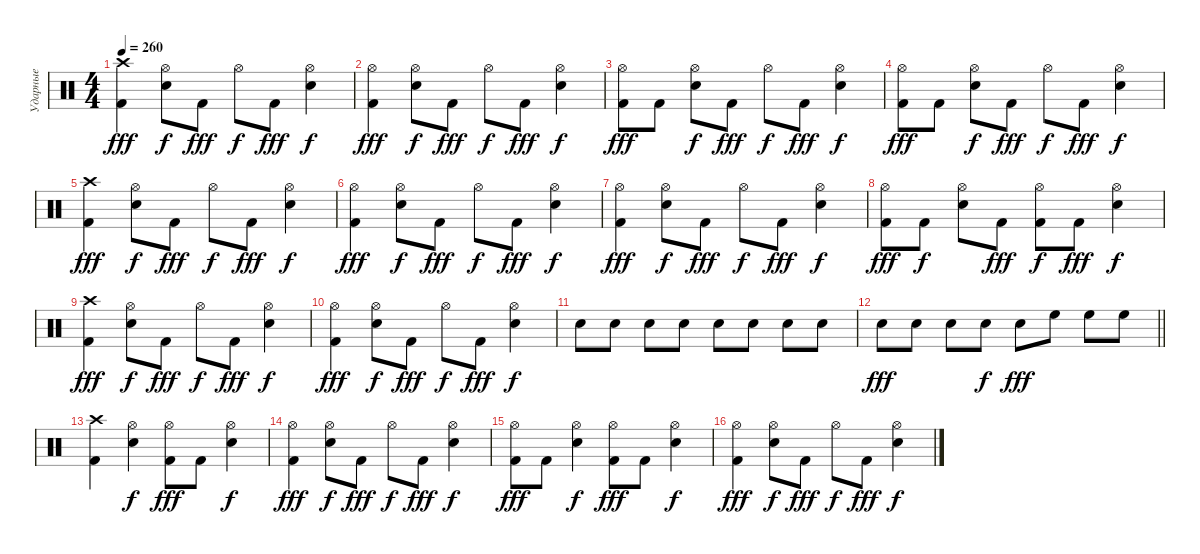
\track ("Ударные" "Ударные") {instrument percussion}
\staff {score}
\articulation defaults
\ts (4 4)
\tempo 260
\clef neutral
\ks c
("Kick (hit) 2" "Crash high (hit)").4{dy fff} ("Snare (hit) 2" "Hi-Hat (open)").8{dy f} "Kick (hit) 2".8{dy fff} "Hi-Hat (open)".8{dy f} "Kick (hit) 2".8{dy fff} ("Snare (hit) 2" "Hi-Hat (open)").4{dy f} |
("Kick (hit) 2" "Hi-Hat (open)").4{dy fff} ("Snare (hit) 2" "Hi-Hat (open)").8{dy f} "Kick (hit) 2".8{dy fff} "Hi-Hat (open)".8{dy f} "Kick (hit) 2".8{dy fff} ("Snare (hit) 2" "Hi-Hat (open)").4{dy f} |
("Kick (hit) 2" "Hi-Hat (open)").8{dy fff} "Kick (hit) 2".8 ("Snare (hit) 2" "Hi-Hat (open)").8{dy f} "Kick (hit) 2".8{dy fff} "Hi-Hat (open)".8{dy f} "Kick (hit) 2".8{dy fff} ("Snare (hit) 2" "Hi-Hat (open)").4{dy f} |
("Kick (hit) 2" "Hi-Hat (open)").8{dy fff} "Kick (hit) 2".8 ("Snare (hit) 2" "Hi-Hat (open)").8{dy f} "Kick (hit) 2".8{dy fff} "Hi-Hat (open)".8{dy f} "Kick (hit) 2".8{dy fff} ("Snare (hit) 2" "Hi-Hat (open)").4{dy f} |
("Kick (hit) 2" "Crash high (hit)").4{dy fff} ("Snare (hit) 2" "Hi-Hat (open)").8{dy f} "Kick (hit) 2".8{dy fff} "Hi-Hat (open)".8{dy f} "Kick (hit) 2".8{dy fff} ("Snare (hit) 2" "Hi-Hat (open)").4{dy f} |
("Kick (hit) 2" "Hi-Hat (open)").4{dy fff} ("Snare (hit) 2" "Hi-Hat (open)").8{dy f} "Kick (hit) 2".8{dy fff} "Hi-Hat (open)".8{dy f} "Kick (hit) 2".8{dy fff} ("Snare (hit) 2" "Hi-Hat (open)").4{dy f} |
("Kick (hit) 2" "Hi-Hat (open)").4{dy fff} ("Snare (hit) 2" "Hi-Hat (open)").8{dy f} "Kick (hit) 2".8{dy fff} "Hi-Hat (open)".8{dy f} "Kick (hit) 2".8{dy fff} ("Snare (hit) 2" "Hi-Hat (open)").4{dy f} |
("Kick (hit) 2" "Hi-Hat (open)").8{dy fff} "Kick (hit) 2".8{dy f} ("Snare (hit) 2" "Hi-Hat (open)").8 "Kick (hit) 2".8{dy fff} ("Kick (hit) 2" "Hi-Hat (open)").8{dy f} "Kick (hit) 2".8{dy fff} ("Snare (hit) 2" "Hi-Hat (open)").4{dy f} |
("Kick (hit) 2" "Crash high (hit)").4{dy fff} ("Snare (hit) 2" "Hi-Hat (open)").8{dy f} "Kick (hit) 2".8{dy fff} "Hi-Hat (open)".8{dy f} "Kick (hit) 2".8{dy fff} ("Snare (hit) 2" "Hi-Hat (open)").4{dy f} |
("Kick (hit) 2" "Hi-Hat (open)").4{dy fff} ("Snare (hit) 2" "Hi-Hat (open)").8{dy f} "Kick (hit) 2".8{dy fff} "Hi-Hat (open)".8{dy f} "Kick (hit) 2".8{dy fff} ("Snare (hit) 2" "Hi-Hat (open)").4{dy f} |
"Snare (hit) 2".8 "Snare (hit) 2".8 "Snare (hit) 2".8 "Snare (hit) 2".8 "Snare (hit) 2".8 "Snare (hit) 2".8 "Snare (hit) 2".8 "Snare (hit) 2".8 |
\barLineRight lightlight "Electric Snare (hit)".8{dy fff} "Electric Snare (hit)".8 "Electric Snare (hit)".8 "Electric Snare (hit)".8{dy f} "Electric Snare (hit)".8{dy fff} "High Floor Tom (hit)".8 "High Floor Tom (hit)".8 "High Floor Tom (hit)".8
|
("Kick (hit) 2" "Crash high (hit)").4 ("Snare (hit) 2" "Hi-Hat (open)").4{dy f} ("Kick (hit) 2" "Hi-Hat (open)").8{dy fff} "Kick (hit) 2".8 ("Snare (hit) 2" "Hi-Hat (open)").4{dy f} |
("Kick (hit) 2" "Hi-Hat (open)").4{dy fff} ("Snare (hit) 2" "Hi-Hat (open)").8{dy f} "Kick (hit) 2".8{dy fff} "Hi-Hat (open)".8{dy f} "Kick (hit) 2".8{dy fff} ("Snare (hit) 2" "Hi-Hat (open)").4{dy f} |
("Kick (hit) 2" "Hi-Hat (open)").8{dy fff} "Kick (hit) 2".8 ("Snare (hit) 2" "Hi-Hat (open)").4{dy f} ("Kick (hit) 2" "Hi-Hat (open)").8{dy fff} "Kick (hit) 2".8 ("Snare (hit) 2" "Hi-Hat (open)").4{dy f} |
("Kick (hit) 2" "Hi-Hat (open)").4{dy fff} ("Snare (hit) 2" "Hi-Hat (open)").8{dy f} "Kick (hit) 2".8{dy fff} "Hi-Hat (open)".8{dy f} "Kick (hit) 2".8{dy fff} ("Snare (hit) 2" "Hi-Hat (open)").4{dy f}
